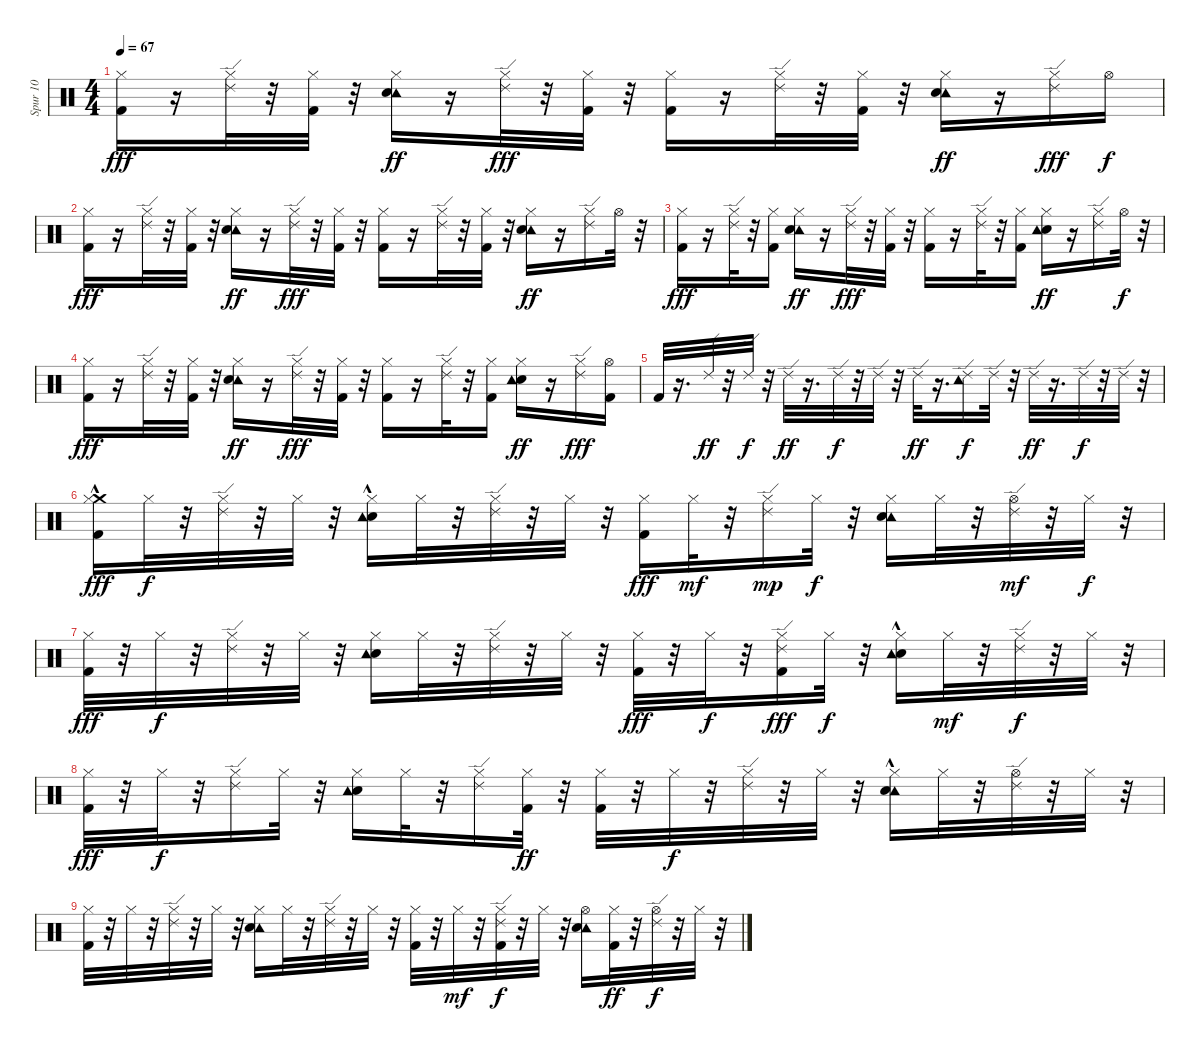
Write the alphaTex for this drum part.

\track ("Spur 10" "Spur 10") {instrument percussion}
\staff {score}
\articulation defaults
\ts (4 4)
\tempo 67
\clef neutral
\ks c
("Hi-Hat (closed)" "Kick (hit) 2").16{dy fff} r.16 ("Hi-Hat (closed)" "Ride (edge) 2").32 r.32 ("Hi-Hat (closed)" "Kick (hit) 2").32 r.32 ("Hi-Hat (closed)" "Tambourine (hit)" "Electric Snare (hit)").16{dy ff} r.16 ("Hi-Hat (closed)" "Ride (edge) 2").32{dy fff} r.32 ("Hi-Hat (closed)" "Kick (hit) 2").32 r.32 ("Hi-Hat (closed)" "Kick (hit) 2").16 r.16 ("Hi-Hat (closed)" "Ride (edge) 2").32 r.32 ("Hi-Hat (closed)" "Kick (hit) 2").32 r.32 ("Hi-Hat (closed)" "Tambourine (hit)" "Electric Snare (hit)").16{dy ff} r.16 ("Hi-Hat (closed)" "Ride (edge) 2").16{dy fff} "Hi-Hat (open)".16{dy f} |
("Hi-Hat (closed)" "Kick (hit) 2").16{dy fff} r.16 ("Hi-Hat (closed)" "Ride (edge) 2").32 r.32 ("Hi-Hat (closed)" "Kick (hit) 2").32 r.32 ("Hi-Hat (closed)" "Tambourine (hit)" "Electric Snare (hit)").16{dy ff} r.16 ("Hi-Hat (closed)" "Ride (edge) 2").32{dy fff} r.32 ("Hi-Hat (closed)" "Kick (hit) 2").32 r.32 ("Hi-Hat (closed)" "Kick (hit) 2").16 r.16 ("Hi-Hat (closed)" "Ride (edge) 2").32 r.32 ("Hi-Hat (closed)" "Kick (hit) 2").32 r.32 ("Hi-Hat (closed)" "Tambourine (hit)" "Electric Snare (hit)").16{dy ff} r.16 ("Hi-Hat (closed)" "Ride (edge) 2").16 "Hi-Hat (open)".32 r.32 |
("Hi-Hat (closed)" "Kick (hit) 2").16{dy fff} r.16 ("Hi-Hat (closed)" "Ride (edge) 2").32 r.32 ("Hi-Hat (closed)" "Kick (hit) 2").16 ("Hi-Hat (closed)" "Tambourine (hit)" "Electric Snare (hit)").16{dy ff} r.16 ("Hi-Hat (closed)" "Ride (edge) 2").32{dy fff} r.32 ("Hi-Hat (closed)" "Kick (hit) 2").32 r.32 ("Hi-Hat (closed)" "Kick (hit) 2").16 r.16 ("Hi-Hat (closed)" "Ride (edge) 2").32 r.32 ("Hi-Hat (closed)" "Kick (hit) 2").16 ("Hi-Hat (closed)" "Electric Snare (hit)" "Tambourine (hit)").16{dy ff} r.16 ("Hi-Hat (closed)" "Ride (edge) 2").16 "Hi-Hat (open)".32{dy f} r.32 |
("Hi-Hat (closed)" "Kick (hit) 2").16{dy fff} r.16 ("Hi-Hat (closed)" "Ride (edge) 2").32 r.32 ("Hi-Hat (closed)" "Kick (hit) 2").32 r.32 ("Hi-Hat (closed)" "Tambourine (hit)" "Electric Snare (hit)").16{dy ff} r.16 ("Hi-Hat (closed)" "Ride (edge) 2").32{dy fff} r.32 ("Hi-Hat (closed)" "Kick (hit) 2").32 r.32 ("Hi-Hat (closed)" "Kick (hit) 2").16 r.16 ("Hi-Hat (closed)" "Ride (edge) 2").32 r.32 ("Hi-Hat (closed)" "Kick (hit) 2").16 ("Hi-Hat (closed)" "Electric Snare (hit)" "Tambourine (hit)").16{dy ff} r.16 ("Hi-Hat (closed)" "Ride (edge) 2").16{dy fff} ("Hi-Hat (open)" "Kick (hit) 2").16 |
"Kick (hit) 2".32 r.16{d} "Ride (edge) 2".32{dy ff} r.32 "Ride (edge) 2".32{dy f} r.32 "Ride (edge) 2".32{dy ff} r.16{d} "Ride (edge) 2".32{dy f} r.32 "Ride (edge) 2".32 r.32 "Ride (edge) 2".32{dy ff} r.16{d} ("Tambourine (hit)" "Ride (edge) 2").16{dy f} "Ride (edge) 2".32 r.32 "Ride (edge) 2".32{dy ff} r.16{d} "Ride (edge) 2".32{dy f} r.32 "Ride (edge) 2".32 r.32 |
("Crash medium (hit)"{hac} "Hi-Hat (closed)" "Kick (hit) 2").16{dy fff} "Hi-Hat (closed)".32{dy f} r.32 ("Hi-Hat (closed)" "Ride (edge) 2").32 r.32 "Hi-Hat (closed)".32 r.32 ("Hi-Hat (closed)" "Electric Snare (hit)" "Tambourine (hit)"{hac}).16 "Hi-Hat (closed)".32 r.32 ("Hi-Hat (closed)" "Ride (edge) 2").32 r.32 "Hi-Hat (closed)".32 r.32 ("Hi-Hat (closed)" "Kick (hit) 2").16{dy fff} "Hi-Hat (closed)".32{dy mf} r.32 ("Hi-Hat (closed)" "Ride (edge) 2").16{dy mp} "Hi-Hat (closed)".32{dy f} r.32 ("Hi-Hat (closed)" "Tambourine (hit)" "Electric Snare (hit)").16 "Hi-Hat (closed)".32 r.32 ("Hi-Hat (open)" "Ride (edge) 2").32{dy mf} r.32 "Hi-Hat (closed)".32{dy f} r.32 |
("Hi-Hat (closed)" "Kick (hit) 2").32{dy fff} r.32 "Hi-Hat (closed)".32{dy f} r.32 ("Hi-Hat (closed)" "Ride (edge) 2").32 r.32 "Hi-Hat (closed)".32 r.32 ("Hi-Hat (closed)" "Electric Snare (hit)" "Tambourine (hit)").16 "Hi-Hat (closed)".32 r.32 ("Hi-Hat (closed)" "Ride (edge) 2").32 r.32 "Hi-Hat (closed)".32 r.32 ("Hi-Hat (closed)" "Kick (hit) 2").32{dy fff} r.32 "Hi-Hat (closed)".32{dy f} r.32 ("Hi-Hat (closed)" "Kick (hit) 2" "Ride (edge) 2").16{dy fff} "Hi-Hat (closed)".32{dy f} r.32 ("Hi-Hat (closed)" "Electric Snare (hit)" "Tambourine (hit)"{hac}).16 "Hi-Hat (closed)".32{dy mf} r.32 ("Hi-Hat (closed)" "Ride (edge) 2").32{dy f} r.32 "Hi-Hat (closed)".32 r.32 |
("Hi-Hat (closed)" "Kick (hit) 2").32{dy fff} r.32 "Hi-Hat (closed)".32{dy f} r.32 ("Hi-Hat (closed)" "Ride (edge) 2").16 "Hi-Hat (closed)".32 r.32 ("Hi-Hat (closed)" "Electric Snare (hit)" "Tambourine (hit)").16 "Hi-Hat (closed)".32 r.32 ("Hi-Hat (closed)" "Ride (edge) 2").16 ("Hi-Hat (closed)" "Kick (hit) 2").32{dy ff} r.32 ("Hi-Hat (closed)" "Kick (hit) 2").32 r.32 "Hi-Hat (closed)".32{dy f} r.32 ("Hi-Hat (closed)" "Ride (edge) 2").32 r.32 "Hi-Hat (closed)".32 r.32 ("Hi-Hat (closed)" "Tambourine (hit)"{hac} "Electric Snare (hit)").16 "Hi-Hat (closed)".32 r.32 ("Hi-Hat (open)" "Ride (edge) 2").32 r.32 "Hi-Hat (closed)".32 r.32 |
("Hi-Hat (closed)" "Kick (hit) 2").32 r.32 "Hi-Hat (closed)".32 r.32 ("Hi-Hat (closed)" "Ride (edge) 2").32 r.32 "Hi-Hat (closed)".32 r.32 ("Hi-Hat (closed)" "Tambourine (hit)" "Electric Snare (hit)").16 "Hi-Hat (closed)".32 r.32 ("Hi-Hat (closed)" "Ride (edge) 2").32 r.32 "Hi-Hat (closed)".32 r.32 ("Hi-Hat (closed)" "Kick (hit) 2").32 r.32 "Hi-Hat (closed)".32{dy mf} r.32 ("Hi-Hat (closed)" "Kick (hit) 2" "Ride (edge) 2").32{dy f} r.32 "Hi-Hat (closed)".32 r.32 ("Hi-Hat (open)" "Tambourine (hit)" "Electric Snare (hit)").16 ("Hi-Hat (closed)" "Kick (hit) 2").32{dy ff} r.32 ("Hi-Hat (open)" "Ride (edge) 2").32{dy f} r.32 "Hi-Hat (closed)".32 r.32
